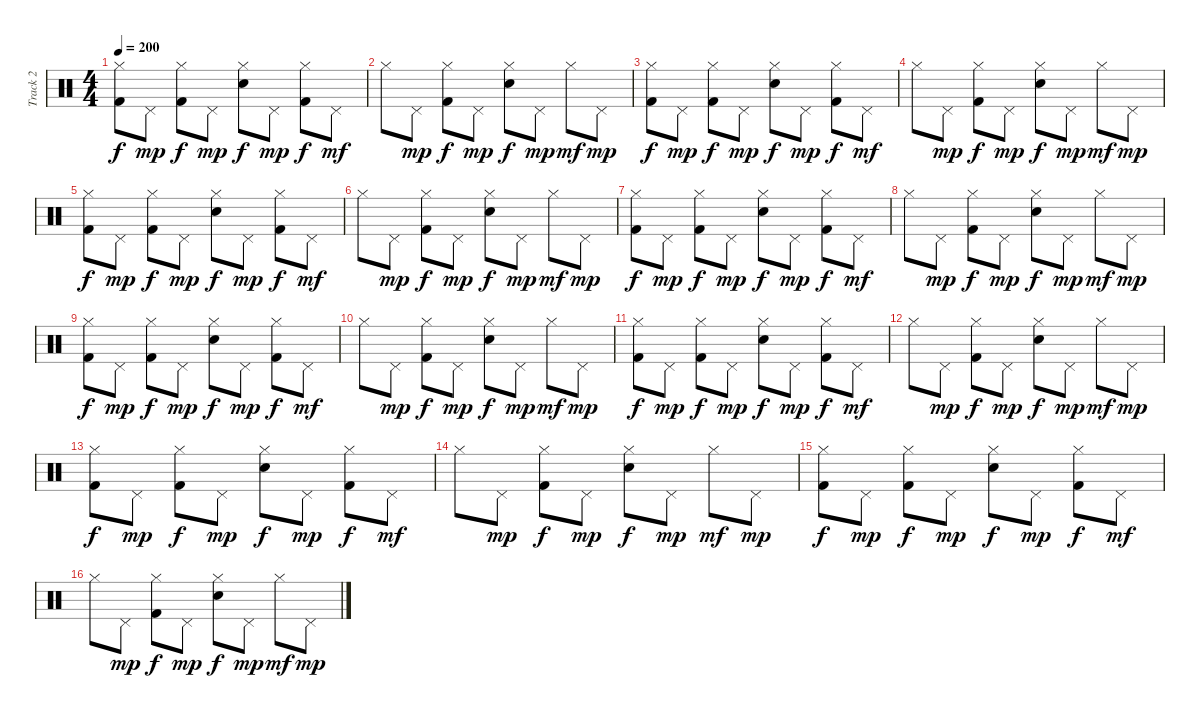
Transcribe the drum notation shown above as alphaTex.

\track ("Track 2" "Track 2") {instrument percussion}
\staff {score}
\articulation defaults
\ts (4 4)
\tempo 200
\clef neutral
\ks c
("Hi-Hat (closed)" "Kick (hit) 2").8{dy f} "Pedal Hi-Hat (hit)".8{dy mp} ("Hi-Hat (closed)" "Kick (hit) 2").8{dy f} "Pedal Hi-Hat (hit)".8{dy mp} ("Hi-Hat (closed)" "Snare (hit) 2").8{dy f} "Pedal Hi-Hat (hit)".8{dy mp} ("Hi-Hat (closed)" "Kick (hit) 2").8{dy f} "Pedal Hi-Hat (hit)".8{dy mf} |
"Hi-Hat (closed)".8 "Pedal Hi-Hat (hit)".8{dy mp} ("Hi-Hat (closed)" "Kick (hit) 2").8{dy f} "Pedal Hi-Hat (hit)".8{dy mp} ("Hi-Hat (closed)" "Snare (hit) 2").8{dy f} "Pedal Hi-Hat (hit)".8{dy mp} "Hi-Hat (closed)".8{dy mf} "Pedal Hi-Hat (hit)".8{dy mp} |
("Hi-Hat (closed)" "Kick (hit) 2").8{dy f} "Pedal Hi-Hat (hit)".8{dy mp} ("Hi-Hat (closed)" "Kick (hit) 2").8{dy f} "Pedal Hi-Hat (hit)".8{dy mp} ("Hi-Hat (closed)" "Snare (hit) 2").8{dy f} "Pedal Hi-Hat (hit)".8{dy mp} ("Hi-Hat (closed)" "Kick (hit) 2").8{dy f} "Pedal Hi-Hat (hit)".8{dy mf} |
"Hi-Hat (closed)".8 "Pedal Hi-Hat (hit)".8{dy mp} ("Hi-Hat (closed)" "Kick (hit) 2").8{dy f} "Pedal Hi-Hat (hit)".8{dy mp} ("Hi-Hat (closed)" "Snare (hit) 2").8{dy f} "Pedal Hi-Hat (hit)".8{dy mp} "Hi-Hat (closed)".8{dy mf} "Pedal Hi-Hat (hit)".8{dy mp} |
("Hi-Hat (closed)" "Kick (hit) 2").8{dy f} "Pedal Hi-Hat (hit)".8{dy mp} ("Hi-Hat (closed)" "Kick (hit) 2").8{dy f} "Pedal Hi-Hat (hit)".8{dy mp} ("Hi-Hat (closed)" "Snare (hit) 2").8{dy f} "Pedal Hi-Hat (hit)".8{dy mp} ("Hi-Hat (closed)" "Kick (hit) 2").8{dy f} "Pedal Hi-Hat (hit)".8{dy mf} |
"Hi-Hat (closed)".8 "Pedal Hi-Hat (hit)".8{dy mp} ("Hi-Hat (closed)" "Kick (hit) 2").8{dy f} "Pedal Hi-Hat (hit)".8{dy mp} ("Hi-Hat (closed)" "Snare (hit) 2").8{dy f} "Pedal Hi-Hat (hit)".8{dy mp} "Hi-Hat (closed)".8{dy mf} "Pedal Hi-Hat (hit)".8{dy mp} |
("Hi-Hat (closed)" "Kick (hit) 2").8{dy f} "Pedal Hi-Hat (hit)".8{dy mp} ("Hi-Hat (closed)" "Kick (hit) 2").8{dy f} "Pedal Hi-Hat (hit)".8{dy mp} ("Hi-Hat (closed)" "Snare (hit) 2").8{dy f} "Pedal Hi-Hat (hit)".8{dy mp} ("Hi-Hat (closed)" "Kick (hit) 2").8{dy f} "Pedal Hi-Hat (hit)".8{dy mf} |
"Hi-Hat (closed)".8 "Pedal Hi-Hat (hit)".8{dy mp} ("Hi-Hat (closed)" "Kick (hit) 2").8{dy f} "Pedal Hi-Hat (hit)".8{dy mp} ("Hi-Hat (closed)" "Snare (hit) 2").8{dy f} "Pedal Hi-Hat (hit)".8{dy mp} "Hi-Hat (closed)".8{dy mf} "Pedal Hi-Hat (hit)".8{dy mp} |
("Hi-Hat (closed)" "Kick (hit) 2").8{dy f} "Pedal Hi-Hat (hit)".8{dy mp} ("Hi-Hat (closed)" "Kick (hit) 2").8{dy f} "Pedal Hi-Hat (hit)".8{dy mp} ("Hi-Hat (closed)" "Snare (hit) 2").8{dy f} "Pedal Hi-Hat (hit)".8{dy mp} ("Hi-Hat (closed)" "Kick (hit) 2").8{dy f} "Pedal Hi-Hat (hit)".8{dy mf} |
"Hi-Hat (closed)".8 "Pedal Hi-Hat (hit)".8{dy mp} ("Hi-Hat (closed)" "Kick (hit) 2").8{dy f} "Pedal Hi-Hat (hit)".8{dy mp} ("Hi-Hat (closed)" "Snare (hit) 2").8{dy f} "Pedal Hi-Hat (hit)".8{dy mp} "Hi-Hat (closed)".8{dy mf} "Pedal Hi-Hat (hit)".8{dy mp} |
("Hi-Hat (closed)" "Kick (hit) 2").8{dy f} "Pedal Hi-Hat (hit)".8{dy mp} ("Hi-Hat (closed)" "Kick (hit) 2").8{dy f} "Pedal Hi-Hat (hit)".8{dy mp} ("Hi-Hat (closed)" "Snare (hit) 2").8{dy f} "Pedal Hi-Hat (hit)".8{dy mp} ("Hi-Hat (closed)" "Kick (hit) 2").8{dy f} "Pedal Hi-Hat (hit)".8{dy mf} |
"Hi-Hat (closed)".8 "Pedal Hi-Hat (hit)".8{dy mp} ("Hi-Hat (closed)" "Kick (hit) 2").8{dy f} "Pedal Hi-Hat (hit)".8{dy mp} ("Hi-Hat (closed)" "Snare (hit) 2").8{dy f} "Pedal Hi-Hat (hit)".8{dy mp} "Hi-Hat (closed)".8{dy mf} "Pedal Hi-Hat (hit)".8{dy mp} |
("Hi-Hat (closed)" "Kick (hit) 2").8{dy f} "Pedal Hi-Hat (hit)".8{dy mp} ("Hi-Hat (closed)" "Kick (hit) 2").8{dy f} "Pedal Hi-Hat (hit)".8{dy mp} ("Hi-Hat (closed)" "Snare (hit) 2").8{dy f} "Pedal Hi-Hat (hit)".8{dy mp} ("Hi-Hat (closed)" "Kick (hit) 2").8{dy f} "Pedal Hi-Hat (hit)".8{dy mf} |
"Hi-Hat (closed)".8 "Pedal Hi-Hat (hit)".8{dy mp} ("Hi-Hat (closed)" "Kick (hit) 2").8{dy f} "Pedal Hi-Hat (hit)".8{dy mp} ("Hi-Hat (closed)" "Snare (hit) 2").8{dy f} "Pedal Hi-Hat (hit)".8{dy mp} "Hi-Hat (closed)".8{dy mf} "Pedal Hi-Hat (hit)".8{dy mp} |
("Hi-Hat (closed)" "Kick (hit) 2").8{dy f} "Pedal Hi-Hat (hit)".8{dy mp} ("Hi-Hat (closed)" "Kick (hit) 2").8{dy f} "Pedal Hi-Hat (hit)".8{dy mp} ("Hi-Hat (closed)" "Snare (hit) 2").8{dy f} "Pedal Hi-Hat (hit)".8{dy mp} ("Hi-Hat (closed)" "Kick (hit) 2").8{dy f} "Pedal Hi-Hat (hit)".8{dy mf} |
"Hi-Hat (closed)".8 "Pedal Hi-Hat (hit)".8{dy mp} ("Hi-Hat (closed)" "Kick (hit) 2").8{dy f} "Pedal Hi-Hat (hit)".8{dy mp} ("Hi-Hat (closed)" "Snare (hit) 2").8{dy f} "Pedal Hi-Hat (hit)".8{dy mp} "Hi-Hat (closed)".8{dy mf} "Pedal Hi-Hat (hit)".8{dy mp}
